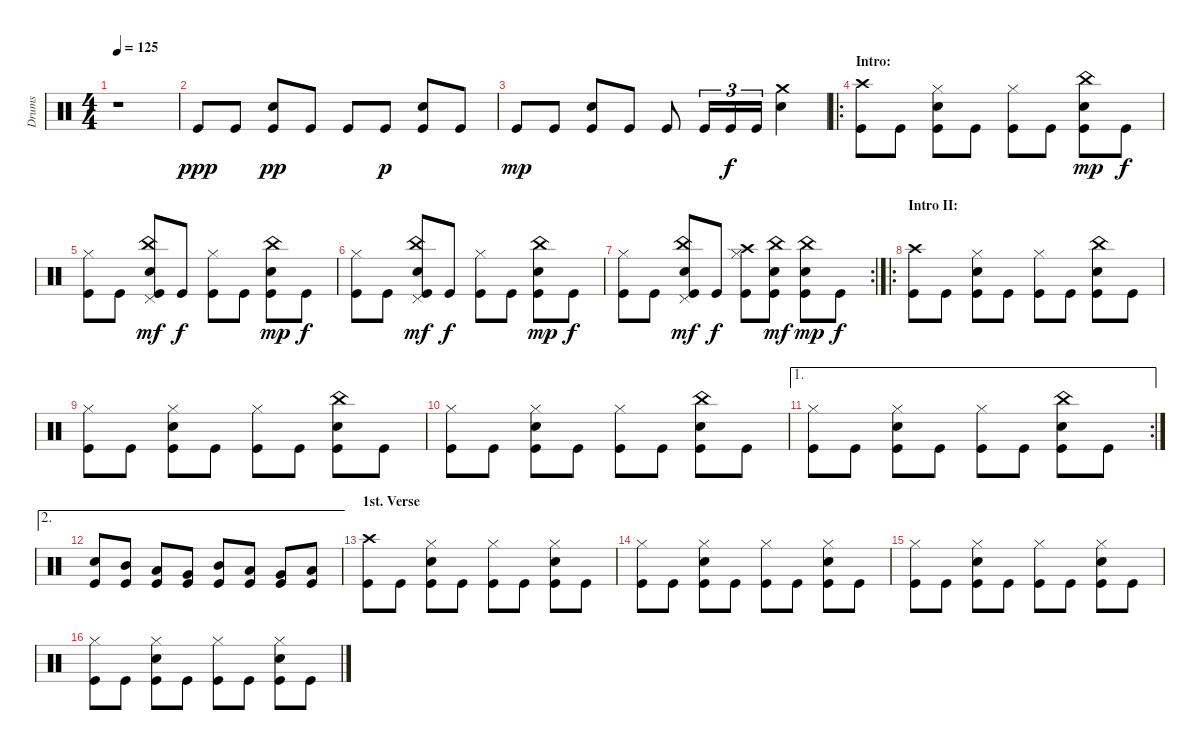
\track ("Drums" "Drums") {instrument percussion}
\staff {score}
\articulation defaults
\ts (4 4)
\tempo 125
\clef neutral
\ks c
r.1{dy ppp} |
"Kick (hit)".8 "Kick (hit)".8 ("Electric Snare (hit)" "Kick (hit)").8{dy pp} "Kick (hit)".8 "Kick (hit)".8 "Kick (hit)".8{dy p} ("Electric Snare (hit)" "Kick (hit)").8 "Kick (hit)".8 |
"Kick (hit)".8{dy mp} "Kick (hit)".8 ("Electric Snare (hit)" "Kick (hit)").8 "Kick (hit)".8 "Kick (hit)".8 "Kick (hit)".16{tu (3 2)} "Kick (hit)".16{tu (3 2) dy f} "Kick (hit)".16{tu (3 2)} ("Crash medium (hit)" "Snare (hit) 2").4 |
\ro
\section ("" "Intro:")
("Crash high (hit)" "Kick (hit)").8 "Kick (hit)".8 ("Hi-Hat (closed)" "Snare (hit) 2" "Kick (hit)").8 "Kick (hit)".8 ("Hi-Hat (closed)" "Kick (hit)").8 "Kick (hit)".8 ("China (hit)" "Snare (hit) 2" "Kick (hit)").8{dy mp} "Kick (hit)".8{dy f} |
("Hi-Hat (closed)" "Kick (hit)").8 "Kick (hit)".8 ("China (hit)" "Pedal Hi-Hat (hit)" "Snare (hit) 2" "Kick (hit)").8{dy mf} "Kick (hit)".8{dy f} ("Hi-Hat (closed)" "Kick (hit)").8 "Kick (hit)".8 ("China (hit)" "Snare (hit) 2" "Kick (hit)").8{dy mp} "Kick (hit)".8{dy f} |
("Hi-Hat (closed)" "Kick (hit)").8 "Kick (hit)".8 ("China (hit)" "Pedal Hi-Hat (hit)" "Snare (hit) 2" "Kick (hit)").8{dy mf} "Kick (hit)".8{dy f} ("Hi-Hat (closed)" "Kick (hit)").8 "Kick (hit)".8 ("China (hit)" "Snare (hit) 2" "Kick (hit)").8{dy mp} "Kick (hit)".8{dy f} |
\rc 2
("Hi-Hat (closed)" "Kick (hit)").8 "Kick (hit)".8 ("China (hit)" "Pedal Hi-Hat (hit)" "Snare (hit) 2" "Kick (hit)").8{dy mf} "Kick (hit)".8{dy f} ("Crash high (hit)" "Hi-Hat (closed)" "Kick (hit)").8 ("China (hit)" "Snare (hit) 2" "Kick (hit)").8{dy mf} ("China (hit)" "Snare (hit) 2" "Kick (hit)").8{dy mp} "Kick (hit)".8{dy f} |
\ro
\section ("" "Intro II:")
("Crash high (hit)" "Kick (hit)").8 "Kick (hit)".8 ("Hi-Hat (closed)" "Snare (hit) 2" "Kick (hit)").8 "Kick (hit)".8 ("Hi-Hat (closed)" "Kick (hit)").8 "Kick (hit)".8 ("China (hit)" "Snare (hit) 2" "Kick (hit)").8 "Kick (hit)".8 |
("Hi-Hat (closed)" "Kick (hit)").8 "Kick (hit)".8 ("Hi-Hat (closed)" "Snare (hit) 2" "Kick (hit)").8 "Kick (hit)".8 ("Hi-Hat (closed)" "Kick (hit)").8 "Kick (hit)".8 ("China (hit)" "Snare (hit) 2" "Kick (hit)").8 "Kick (hit)".8 |
("Hi-Hat (closed)" "Kick (hit)").8 "Kick (hit)".8 ("Hi-Hat (closed)" "Snare (hit) 2" "Kick (hit)").8 "Kick (hit)".8 ("Hi-Hat (closed)" "Kick (hit)").8 "Kick (hit)".8 ("China (hit)" "Snare (hit) 2" "Kick (hit)").8 "Kick (hit)".8 |
\ae 1
\rc 2
("Hi-Hat (closed)" "Kick (hit)").8 "Kick (hit)".8 ("Hi-Hat (closed)" "Snare (hit) 2" "Kick (hit)").8 "Kick (hit)".8 ("Hi-Hat (closed)" "Kick (hit)").8 "Kick (hit)".8 ("China (hit)" "Snare (hit) 2" "Kick (hit)").8 "Kick (hit)".8 |
\ae 2
("Snare (hit) 2" "Kick (hit)").8 ("Mid Tom (hit)" "Kick (hit)").8 ("Low Tom (hit)" "Kick (hit)").8 ("Very Low Tom (hit)" "Kick (hit)").8 ("Mid Tom (hit)" "Kick (hit)").8 ("Low Tom (hit)" "Kick (hit)").8 ("Very Low Tom (hit)" "Kick (hit)").8 ("Low Floor Tom (hit)" "Kick (hit)").8 |
\section ("" "1st. Verse")
("Crash high (hit)" "Kick (hit)").8 "Kick (hit)".8 ("Hi-Hat (closed)" "Snare (hit) 2" "Kick (hit)").8 "Kick (hit)".8 ("Hi-Hat (closed)" "Kick (hit)").8 "Kick (hit)".8 ("Hi-Hat (closed)" "Snare (hit) 2" "Kick (hit)").8 "Kick (hit)".8 |
("Hi-Hat (closed)" "Kick (hit)").8 "Kick (hit)".8 ("Hi-Hat (closed)" "Snare (hit) 2" "Kick (hit)").8 "Kick (hit)".8 ("Hi-Hat (closed)" "Kick (hit)").8 "Kick (hit)".8 ("Hi-Hat (closed)" "Snare (hit) 2" "Kick (hit)").8 "Kick (hit)".8 |
("Hi-Hat (closed)" "Kick (hit)").8 "Kick (hit)".8 ("Hi-Hat (closed)" "Snare (hit) 2" "Kick (hit)").8 "Kick (hit)".8 ("Hi-Hat (closed)" "Kick (hit)").8 "Kick (hit)".8 ("Hi-Hat (closed)" "Snare (hit) 2" "Kick (hit)").8 "Kick (hit)".8 |
("Hi-Hat (closed)" "Kick (hit)").8 "Kick (hit)".8 ("Hi-Hat (closed)" "Snare (hit) 2" "Kick (hit)").8 "Kick (hit)".8 ("Hi-Hat (closed)" "Kick (hit)").8 "Kick (hit)".8 ("Hi-Hat (closed)" "Snare (hit) 2" "Kick (hit)").8 "Kick (hit)".8
